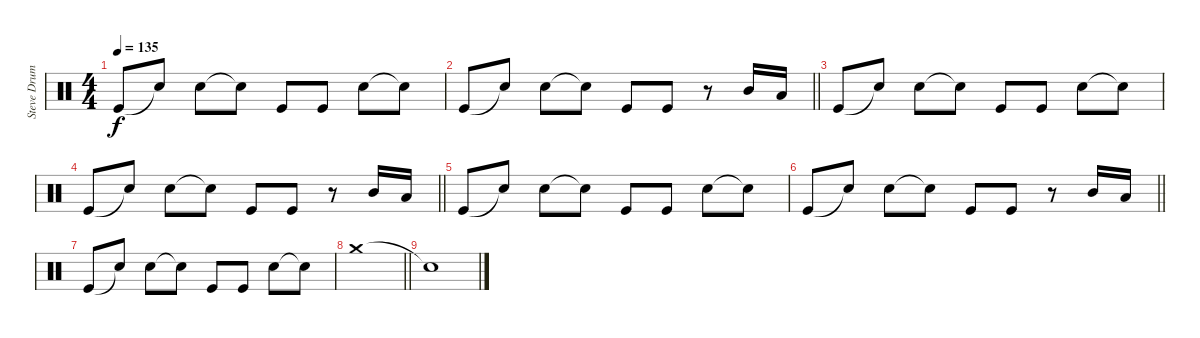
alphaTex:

\track ("Steve Drums" "Steve Drum") {instrument percussion}
\staff {score}
\articulation defaults
\ts (4 4)
\tempo 135
\clef neutral
\ks c "Kick (hit)".8{dy f} "Snare (hit)"{t}.8 "Snare (hit) 2".8 "Snare (hit)"{t}.8 "Kick (hit)".8 "Kick (hit)".8 "Snare (hit) 2".8 "Snare (hit)"{t}.8
|
\barLineRight lightlight "Kick (hit)".8 "Snare (hit)"{t}.8 "Snare (hit) 2".8 "Snare (hit)"{t}.8 "Kick (hit)".8 "Kick (hit)".8
r.8 "Mid Tom (hit)".16 "Low Tom (hit)".16 |
"Kick (hit)".8 "Snare (hit)"{t}.8 "Snare (hit) 2".8 "Snare (hit)"{t}.8 "Kick (hit)".8 "Kick (hit)".8 "Snare (hit) 2".8 "Snare (hit)"{t}.8 |
\barLineRight lightlight "Kick (hit)".8 "Snare (hit)"{t}.8 "Snare (hit) 2".8 "Snare (hit)"{t}.8 "Kick (hit)".8 "Kick (hit)".8
r.8 "Mid Tom (hit)".16 "Low Tom (hit)".16 |
"Kick (hit)".8 "Snare (hit)"{t}.8 "Snare (hit) 2".8 "Snare (hit)"{t}.8 "Kick (hit)".8 "Kick (hit)".8 "Snare (hit) 2".8 "Snare (hit)"{t}.8 |
\barLineRight lightlight "Kick (hit)".8 "Snare (hit)"{t}.8 "Snare (hit) 2".8 "Snare (hit)"{t}.8 "Kick (hit)".8 "Kick (hit)".8
r.8 "Mid Tom (hit)".16 "Low Tom (hit)".16 |
"Kick (hit)".8 "Snare (hit)"{t}.8 "Snare (hit) 2".8 "Snare (hit)"{t}.8 "Kick (hit)".8 "Kick (hit)".8 "Snare (hit) 2".8 "Snare (hit)"{t}.8 |
\barLineRight lightlight "Crash medium (hit)".1
|
"Snare (hit)"{t}.1
